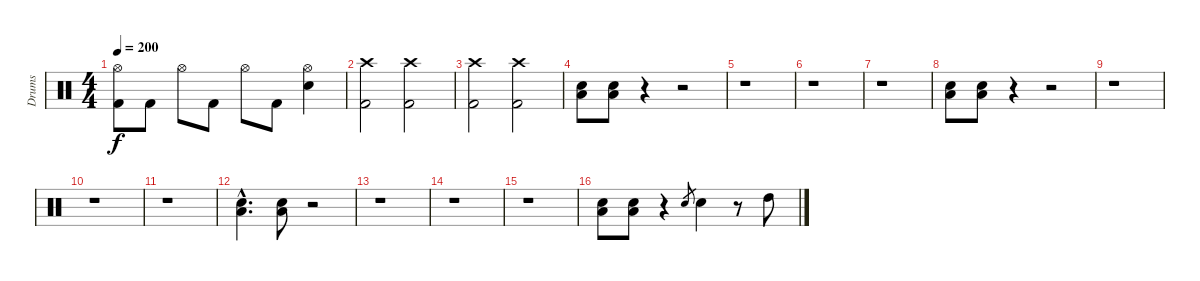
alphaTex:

\track ("Drums" "Drums") {instrument percussion}
\staff {score}
\articulation defaults
\ts (4 4)
\tempo 200
\clef neutral
\ks c
("Hi-Hat (open)" "Kick (hit) 2").8{dy f} "Kick (hit) 2".8 "Hi-Hat (open)".8 "Kick (hit) 2".8 "Hi-Hat (open)".8 "Kick (hit) 2".8 ("Hi-Hat (open)" "Electric Snare (hit)").4 |
("Crash high (hit)" "Kick (hit) 2").2 ("Crash high (hit)" "Kick (hit) 2").2 |
("Crash high (hit)" "Kick (hit) 2").2 ("Crash high (hit)" "Kick (hit) 2").2 |
("Electric Snare (hit)" "Low Tom (hit)").8 ("Electric Snare (hit)" "Low Tom (hit)").8 r.4 r.2 |
r.1 |
r.1 |
r.1 |
("Electric Snare (hit)" "Low Tom (hit)").8 ("Electric Snare (hit)" "Low Tom (hit)").8 r.4 r.2 |
r.1 |
r.1 |
r.1 |
("Electric Snare (hit)"{hac} "Low Tom (hit)"{hac}).4{d} ("Electric Snare (hit)" "Low Tom (hit)").8 r.2 |
r.1 |
r.1 |
r.1 |
("Electric Snare (hit)" "Low Tom (hit)").8 ("Electric Snare (hit)" "Low Tom (hit)").8 r.4 "Electric Snare (hit)".8{gr} "Electric Snare (hit)".4 r.8 "High Tom (hit)".8
